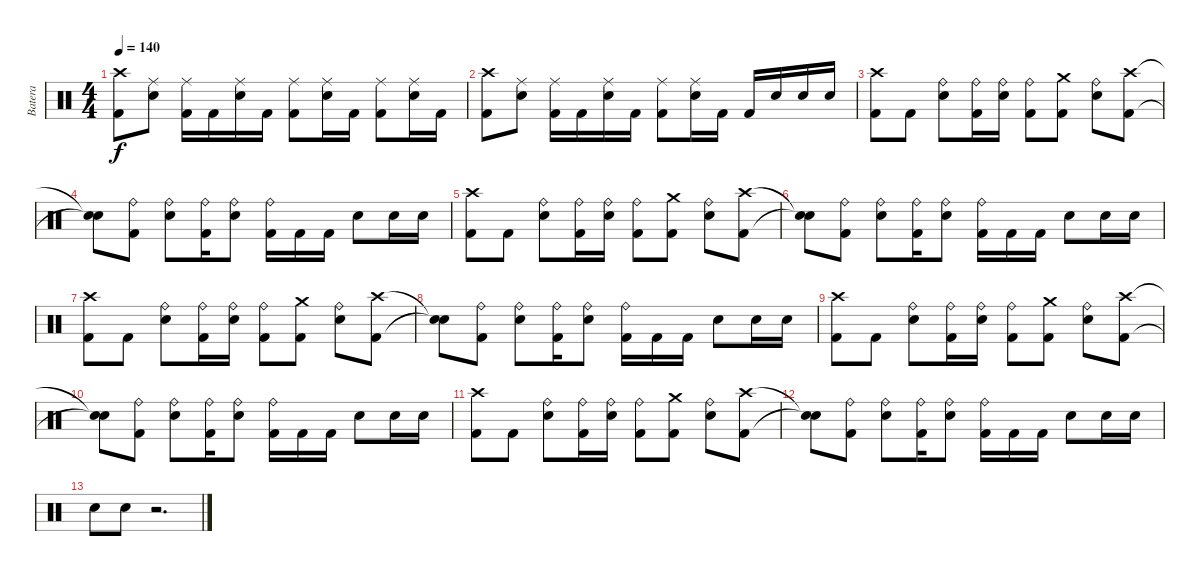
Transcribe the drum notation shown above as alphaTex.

\track ("Batera" "Batera") {instrument percussion}
\staff {score}
\articulation defaults
\ts (4 4)
\tempo 140
\clef neutral
\ks c
("Crash high (hit)" "Kick (hit) 2").8{dy f} ("Ride (middle)" "Electric Snare (hit)").8 ("Ride (middle)" "Kick (hit) 2").16 "Kick (hit) 2".16 ("Ride (middle)" "Electric Snare (hit)").16 "Kick (hit) 2".16 ("Ride (middle)" "Kick (hit) 2").8 ("Ride (middle)" "Electric Snare (hit)").16 "Kick (hit) 2".16 ("Ride (middle)" "Kick (hit) 2").8 ("Ride (middle)" "Electric Snare (hit)").16 "Kick (hit) 2".16 |
("Crash high (hit)" "Kick (hit) 2").8 ("Ride (middle)" "Electric Snare (hit)").8 ("Ride (middle)" "Kick (hit) 2").16 "Kick (hit) 2".16 ("Ride (middle)" "Electric Snare (hit)").16 "Kick (hit) 2".16 ("Ride (middle)" "Kick (hit) 2").8 ("Ride (middle)" "Electric Snare (hit)").16 "Kick (hit) 2".16 "Kick (hit) 2".16 "Electric Snare (hit)".16 "Electric Snare (hit)".16 "Electric Snare (hit)".16 |
("Crash high (hit)" "Kick (hit) 2").8 "Kick (hit) 2".8 ("Ride (bell)" "Electric Snare (hit)").8 ("Ride (bell)" "Kick (hit) 2").16 ("Ride (bell)" "Electric Snare (hit)").16 ("Ride (bell)" "Kick (hit) 2").8 ("Crash medium (hit)" "Kick (hit) 2").8 ("Ride (bell)" "Electric Snare (hit)").8 ("Crash high (hit)" "Kick (hit) 2").8 |
("Snare (hit)"{t} "Snare (hit)"{t}).8 ("Ride (bell)" "Kick (hit) 2").8 ("Ride (bell)" "Electric Snare (hit)").8 ("Ride (bell)" "Kick (hit) 2").16 ("Ride (bell)" "Electric Snare (hit)").8 ("Ride (bell)" "Kick (hit) 2").16 "Kick (hit) 2".16 "Kick (hit) 2".16 "Electric Snare (hit)".8 "Electric Snare (hit)".16 "Electric Snare (hit)".16 |
("Crash high (hit)" "Kick (hit) 2").8 "Kick (hit) 2".8 ("Ride (bell)" "Electric Snare (hit)").8 ("Ride (bell)" "Kick (hit) 2").16 ("Ride (bell)" "Electric Snare (hit)").16 ("Ride (bell)" "Kick (hit) 2").8 ("Crash medium (hit)" "Kick (hit) 2").8 ("Ride (bell)" "Electric Snare (hit)").8 ("Crash high (hit)" "Kick (hit) 2").8 |
("Snare (hit)"{t} "Snare (hit)"{t}).8 ("Ride (bell)" "Kick (hit) 2").8 ("Ride (bell)" "Electric Snare (hit)").8 ("Ride (bell)" "Kick (hit) 2").16 ("Ride (bell)" "Electric Snare (hit)").8 ("Ride (bell)" "Kick (hit) 2").16 "Kick (hit) 2".16 "Kick (hit) 2".16 "Electric Snare (hit)".8 "Electric Snare (hit)".16 "Electric Snare (hit)".16 |
("Crash high (hit)" "Kick (hit) 2").8 "Kick (hit) 2".8 ("Ride (bell)" "Electric Snare (hit)").8 ("Ride (bell)" "Kick (hit) 2").16 ("Ride (bell)" "Electric Snare (hit)").16 ("Ride (bell)" "Kick (hit) 2").8 ("Crash medium (hit)" "Kick (hit) 2").8 ("Ride (bell)" "Electric Snare (hit)").8 ("Crash high (hit)" "Kick (hit) 2").8 |
("Snare (hit)"{t} "Snare (hit)"{t}).8 ("Ride (bell)" "Kick (hit) 2").8 ("Ride (bell)" "Electric Snare (hit)").8 ("Ride (bell)" "Kick (hit) 2").16 ("Ride (bell)" "Electric Snare (hit)").8 ("Ride (bell)" "Kick (hit) 2").16 "Kick (hit) 2".16 "Kick (hit) 2".16 "Electric Snare (hit)".8 "Electric Snare (hit)".16 "Electric Snare (hit)".16 |
("Crash high (hit)" "Kick (hit) 2").8 "Kick (hit) 2".8 ("Ride (bell)" "Electric Snare (hit)").8 ("Ride (bell)" "Kick (hit) 2").16 ("Ride (bell)" "Electric Snare (hit)").16 ("Ride (bell)" "Kick (hit) 2").8 ("Crash medium (hit)" "Kick (hit) 2").8 ("Ride (bell)" "Electric Snare (hit)").8 ("Crash high (hit)" "Kick (hit) 2").8 |
("Snare (hit)"{t} "Snare (hit)"{t}).8 ("Ride (bell)" "Kick (hit) 2").8 ("Ride (bell)" "Electric Snare (hit)").8 ("Ride (bell)" "Kick (hit) 2").16 ("Ride (bell)" "Electric Snare (hit)").8 ("Ride (bell)" "Kick (hit) 2").16 "Kick (hit) 2".16 "Kick (hit) 2".16 "Electric Snare (hit)".8 "Electric Snare (hit)".16 "Electric Snare (hit)".16 |
("Crash high (hit)" "Kick (hit) 2").8 "Kick (hit) 2".8 ("Ride (bell)" "Electric Snare (hit)").8 ("Ride (bell)" "Kick (hit) 2").16 ("Ride (bell)" "Electric Snare (hit)").16 ("Ride (bell)" "Kick (hit) 2").8 ("Crash medium (hit)" "Kick (hit) 2").8 ("Ride (bell)" "Electric Snare (hit)").8 ("Crash high (hit)" "Kick (hit) 2").8 |
("Snare (hit)"{t} "Snare (hit)"{t}).8 ("Ride (bell)" "Kick (hit) 2").8 ("Ride (bell)" "Electric Snare (hit)").8 ("Ride (bell)" "Kick (hit) 2").16 ("Ride (bell)" "Electric Snare (hit)").8 ("Ride (bell)" "Kick (hit) 2").16 "Kick (hit) 2".16 "Kick (hit) 2".16 "Electric Snare (hit)".8 "Electric Snare (hit)".16 "Electric Snare (hit)".16 |
"Electric Snare (hit)".8 "Electric Snare (hit)".8 r.2{d}
